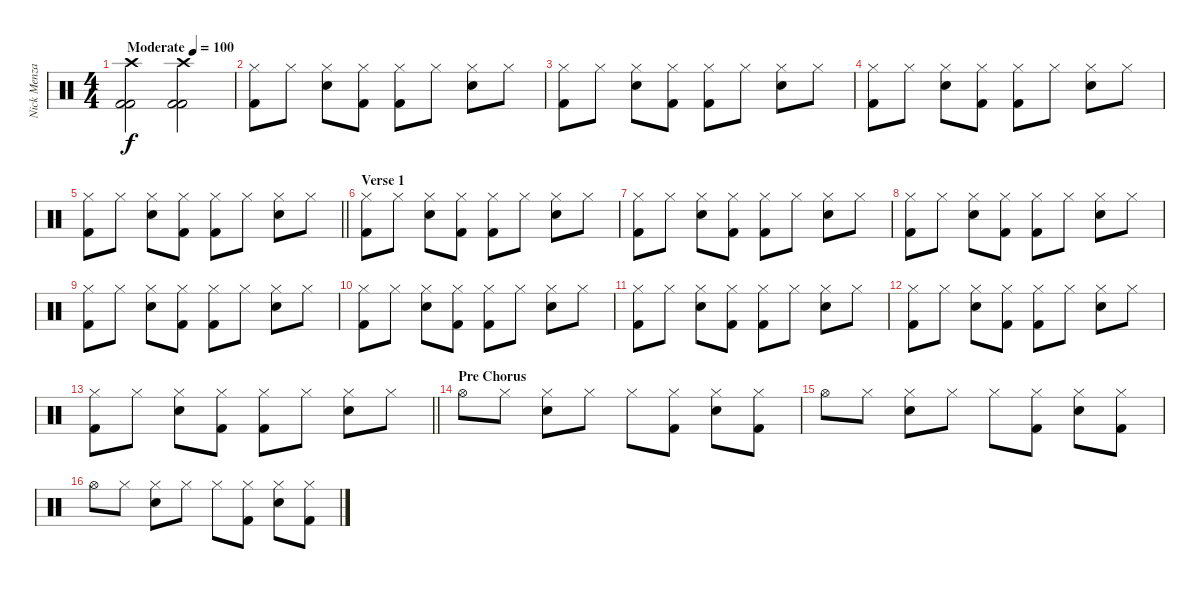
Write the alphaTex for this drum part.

\track ("Nick Menza" "Nick Menza") {instrument percussion}
\staff {score}
\articulation defaults
\ts (4 4)
\tempo (100 "Moderate")
\clef neutral
\ks c
("Crash high (hit)" "Kick (hit) 2" "Kick (hit) 2").2{dy f} ("Crash high (hit)" "Kick (hit) 2" "Kick (hit) 2").2 |
("Hi-Hat (closed)" "Kick (hit) 2").8 "Hi-Hat (closed)".8 ("Hi-Hat (closed)" "Snare (hit) 2").8 ("Hi-Hat (closed)" "Kick (hit) 2").8 ("Hi-Hat (closed)" "Kick (hit) 2").8 "Hi-Hat (closed)".8 ("Hi-Hat (closed)" "Snare (hit) 2").8 "Hi-Hat (closed)".8 |
("Hi-Hat (closed)" "Kick (hit) 2").8 "Hi-Hat (closed)".8 ("Hi-Hat (closed)" "Snare (hit) 2").8 ("Hi-Hat (closed)" "Kick (hit) 2").8 ("Hi-Hat (closed)" "Kick (hit) 2").8 "Hi-Hat (closed)".8 ("Hi-Hat (closed)" "Snare (hit) 2").8 "Hi-Hat (closed)".8 |
("Hi-Hat (closed)" "Kick (hit) 2").8 "Hi-Hat (closed)".8 ("Hi-Hat (closed)" "Snare (hit) 2").8 ("Hi-Hat (closed)" "Kick (hit) 2").8 ("Hi-Hat (closed)" "Kick (hit) 2").8 "Hi-Hat (closed)".8 ("Hi-Hat (closed)" "Snare (hit) 2").8 "Hi-Hat (closed)".8 |
\barLineRight lightlight
("Hi-Hat (closed)" "Kick (hit) 2").8 "Hi-Hat (closed)".8 ("Hi-Hat (closed)" "Snare (hit) 2").8 ("Hi-Hat (closed)" "Kick (hit) 2").8 ("Hi-Hat (closed)" "Kick (hit) 2").8 "Hi-Hat (closed)".8 ("Hi-Hat (closed)" "Snare (hit) 2").8 "Hi-Hat (closed)".8 |
\section ("" "Verse 1")
("Hi-Hat (closed)" "Kick (hit) 2").8 "Hi-Hat (closed)".8 ("Hi-Hat (closed)" "Snare (hit) 2").8 ("Hi-Hat (closed)" "Kick (hit) 2").8 ("Hi-Hat (closed)" "Kick (hit) 2").8 "Hi-Hat (closed)".8 ("Hi-Hat (closed)" "Snare (hit) 2").8 "Hi-Hat (closed)".8 |
("Hi-Hat (closed)" "Kick (hit) 2").8 "Hi-Hat (closed)".8 ("Hi-Hat (closed)" "Snare (hit) 2").8 ("Hi-Hat (closed)" "Kick (hit) 2").8 ("Hi-Hat (closed)" "Kick (hit) 2").8 "Hi-Hat (closed)".8 ("Hi-Hat (closed)" "Snare (hit) 2").8 "Hi-Hat (closed)".8 |
("Hi-Hat (closed)" "Kick (hit) 2").8 "Hi-Hat (closed)".8 ("Hi-Hat (closed)" "Snare (hit) 2").8 ("Hi-Hat (closed)" "Kick (hit) 2").8 ("Hi-Hat (closed)" "Kick (hit) 2").8 "Hi-Hat (closed)".8 ("Hi-Hat (closed)" "Snare (hit) 2").8 "Hi-Hat (closed)".8 |
("Hi-Hat (closed)" "Kick (hit) 2").8 "Hi-Hat (closed)".8 ("Hi-Hat (closed)" "Snare (hit) 2").8 ("Hi-Hat (closed)" "Kick (hit) 2").8 ("Hi-Hat (closed)" "Kick (hit) 2").8 "Hi-Hat (closed)".8 ("Hi-Hat (closed)" "Snare (hit) 2").8 "Hi-Hat (closed)".8 |
("Hi-Hat (closed)" "Kick (hit) 2").8 "Hi-Hat (closed)".8 ("Hi-Hat (closed)" "Snare (hit) 2").8 ("Hi-Hat (closed)" "Kick (hit) 2").8 ("Hi-Hat (closed)" "Kick (hit) 2").8 "Hi-Hat (closed)".8 ("Hi-Hat (closed)" "Snare (hit) 2").8 "Hi-Hat (closed)".8 |
("Hi-Hat (closed)" "Kick (hit) 2").8 "Hi-Hat (closed)".8 ("Hi-Hat (closed)" "Snare (hit) 2").8 ("Hi-Hat (closed)" "Kick (hit) 2").8 ("Hi-Hat (closed)" "Kick (hit) 2").8 "Hi-Hat (closed)".8 ("Hi-Hat (closed)" "Snare (hit) 2").8 "Hi-Hat (closed)".8 |
("Hi-Hat (closed)" "Kick (hit) 2").8 "Hi-Hat (closed)".8 ("Hi-Hat (closed)" "Snare (hit) 2").8 ("Hi-Hat (closed)" "Kick (hit) 2").8 ("Hi-Hat (closed)" "Kick (hit) 2").8 "Hi-Hat (closed)".8 ("Hi-Hat (closed)" "Snare (hit) 2").8 "Hi-Hat (closed)".8 |
\barLineRight lightlight
("Hi-Hat (closed)" "Kick (hit) 2").8 "Hi-Hat (closed)".8 ("Hi-Hat (closed)" "Snare (hit) 2").8 ("Hi-Hat (closed)" "Kick (hit) 2").8 ("Hi-Hat (closed)" "Kick (hit) 2").8 "Hi-Hat (closed)".8 ("Hi-Hat (closed)" "Snare (hit) 2").8 "Hi-Hat (closed)".8 |
\section ("" "Pre Chorus")
"Hi-Hat (open)".8 "Hi-Hat (closed)".8 ("Hi-Hat (closed)" "Snare (hit) 2").8 "Hi-Hat (closed)".8 "Hi-Hat (closed)".8 ("Hi-Hat (closed)" "Kick (hit) 2").8 ("Hi-Hat (closed)" "Snare (hit) 2").8 ("Hi-Hat (closed)" "Kick (hit) 2").8 |
"Hi-Hat (open)".8 "Hi-Hat (closed)".8 ("Hi-Hat (closed)" "Snare (hit) 2").8 "Hi-Hat (closed)".8 "Hi-Hat (closed)".8 ("Hi-Hat (closed)" "Kick (hit) 2").8 ("Hi-Hat (closed)" "Snare (hit) 2").8 ("Hi-Hat (closed)" "Kick (hit) 2").8 |
"Hi-Hat (open)".8 "Hi-Hat (closed)".8 ("Hi-Hat (closed)" "Snare (hit) 2").8 "Hi-Hat (closed)".8 "Hi-Hat (closed)".8 ("Hi-Hat (closed)" "Kick (hit) 2").8 ("Hi-Hat (closed)" "Snare (hit) 2").8 ("Hi-Hat (closed)" "Kick (hit) 2").8
